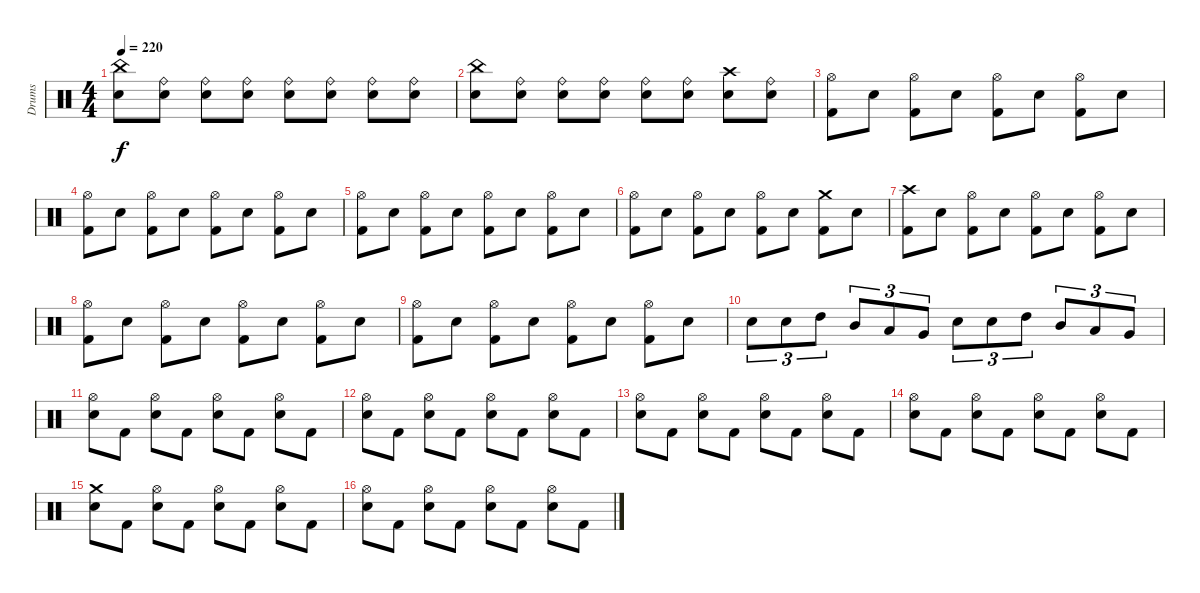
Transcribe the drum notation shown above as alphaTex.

\track ("Drums" "Drums") {instrument percussion}
\staff {score}
\articulation defaults
\ts (4 4)
\tempo 220
\clef neutral
\ks c
("Electric Snare (hit)" "China (hit)").8{dy f} ("Electric Snare (hit)" "Ride (bell)").8 ("Electric Snare (hit)" "Ride (bell)").8 ("Electric Snare (hit)" "Ride (bell)").8 ("Electric Snare (hit)" "Ride (bell)").8 ("Electric Snare (hit)" "Ride (bell)").8 ("Electric Snare (hit)" "Ride (bell)").8 ("Electric Snare (hit)" "Ride (bell)").8 |
("Electric Snare (hit)" "China (hit)").8 ("Electric Snare (hit)" "Ride (bell)").8 ("Electric Snare (hit)" "Ride (bell)").8 ("Electric Snare (hit)" "Ride (bell)").8 ("Electric Snare (hit)" "Ride (bell)").8 ("Electric Snare (hit)" "Ride (bell)").8 ("Electric Snare (hit)" "Crash high (hit)").8 ("Electric Snare (hit)" "Ride (bell)").8 |
("Kick (hit) 2" "Hi-Hat (open)").8 "Electric Snare (hit)".8 ("Kick (hit) 2" "Hi-Hat (open)").8 "Electric Snare (hit)".8 ("Kick (hit) 2" "Hi-Hat (open)").8 "Electric Snare (hit)".8 ("Kick (hit) 2" "Hi-Hat (open)").8 "Electric Snare (hit)".8 |
("Kick (hit) 2" "Hi-Hat (open)").8 "Electric Snare (hit)".8 ("Kick (hit) 2" "Hi-Hat (open)").8 "Electric Snare (hit)".8 ("Kick (hit) 2" "Hi-Hat (open)").8 "Electric Snare (hit)".8 ("Kick (hit) 2" "Hi-Hat (open)").8 "Electric Snare (hit)".8 |
("Kick (hit) 2" "Hi-Hat (open)").8 "Electric Snare (hit)".8 ("Kick (hit) 2" "Hi-Hat (open)").8 "Electric Snare (hit)".8 ("Kick (hit) 2" "Hi-Hat (open)").8 "Electric Snare (hit)".8 ("Kick (hit) 2" "Hi-Hat (open)").8 "Electric Snare (hit)".8 |
("Kick (hit) 2" "Hi-Hat (open)").8 "Electric Snare (hit)".8 ("Kick (hit) 2" "Hi-Hat (open)").8 "Electric Snare (hit)".8 ("Kick (hit) 2" "Hi-Hat (open)").8 "Electric Snare (hit)".8 ("Kick (hit) 2" "Crash medium (hit)").8 "Electric Snare (hit)".8 |
("Kick (hit) 2" "Crash high (hit)").8 "Electric Snare (hit)".8 ("Kick (hit) 2" "Hi-Hat (open)").8 "Electric Snare (hit)".8 ("Kick (hit) 2" "Hi-Hat (open)").8 "Electric Snare (hit)".8 ("Kick (hit) 2" "Hi-Hat (open)").8 "Electric Snare (hit)".8 |
("Kick (hit) 2" "Hi-Hat (open)").8 "Electric Snare (hit)".8 ("Kick (hit) 2" "Hi-Hat (open)").8 "Electric Snare (hit)".8 ("Kick (hit) 2" "Hi-Hat (open)").8 "Electric Snare (hit)".8 ("Kick (hit) 2" "Hi-Hat (open)").8 "Electric Snare (hit)".8 |
("Kick (hit) 2" "Hi-Hat (open)").8 "Electric Snare (hit)".8 ("Kick (hit) 2" "Hi-Hat (open)").8 "Electric Snare (hit)".8 ("Kick (hit) 2" "Hi-Hat (open)").8 "Electric Snare (hit)".8 ("Kick (hit) 2" "Hi-Hat (open)").8 "Electric Snare (hit)".8 |
"Electric Snare (hit)".8{tu (3 2)} "Electric Snare (hit)".8{tu (3 2)} "High Tom (hit)".8{tu (3 2)} "Mid Tom (hit)".8{tu (3 2)} "Low Tom (hit)".8{tu (3 2)} "Very Low Tom (hit)".8{tu (3 2)} "Electric Snare (hit)".8{tu (3 2)} "Electric Snare (hit)".8{tu (3 2)} "High Tom (hit)".8{tu (3 2)} "Mid Tom (hit)".8{tu (3 2)} "Low Tom (hit)".8{tu (3 2)} "Very Low Tom (hit)".8{tu (3 2)} |
("Electric Snare (hit)" "Hi-Hat (open)").8 "Kick (hit) 2".8 ("Electric Snare (hit)" "Hi-Hat (open)").8 "Kick (hit) 2".8 ("Electric Snare (hit)" "Hi-Hat (open)").8 "Kick (hit) 2".8 ("Electric Snare (hit)" "Hi-Hat (open)").8 "Kick (hit) 2".8 |
("Electric Snare (hit)" "Hi-Hat (open)").8 "Kick (hit) 2".8 ("Electric Snare (hit)" "Hi-Hat (open)").8 "Kick (hit) 2".8 ("Electric Snare (hit)" "Hi-Hat (open)").8 "Kick (hit) 2".8 ("Electric Snare (hit)" "Hi-Hat (open)").8 "Kick (hit) 2".8 |
("Electric Snare (hit)" "Hi-Hat (open)").8 "Kick (hit) 2".8 ("Electric Snare (hit)" "Hi-Hat (open)").8 "Kick (hit) 2".8 ("Electric Snare (hit)" "Hi-Hat (open)").8 "Kick (hit) 2".8 ("Electric Snare (hit)" "Hi-Hat (open)").8 "Kick (hit) 2".8 |
("Electric Snare (hit)" "Hi-Hat (open)").8 "Kick (hit) 2".8 ("Electric Snare (hit)" "Hi-Hat (open)").8 "Kick (hit) 2".8 ("Electric Snare (hit)" "Hi-Hat (open)").8 "Kick (hit) 2".8 ("Electric Snare (hit)" "Hi-Hat (open)").8 "Kick (hit) 2".8 |
("Electric Snare (hit)" "Crash medium (hit)").8 "Kick (hit) 2".8 ("Electric Snare (hit)" "Hi-Hat (open)").8 "Kick (hit) 2".8 ("Electric Snare (hit)" "Hi-Hat (open)").8 "Kick (hit) 2".8 ("Electric Snare (hit)" "Hi-Hat (open)").8 "Kick (hit) 2".8 |
("Electric Snare (hit)" "Hi-Hat (open)").8 "Kick (hit) 2".8 ("Electric Snare (hit)" "Hi-Hat (open)").8 "Kick (hit) 2".8 ("Electric Snare (hit)" "Hi-Hat (open)").8 "Kick (hit) 2".8 ("Electric Snare (hit)" "Hi-Hat (open)").8 "Kick (hit) 2".8
